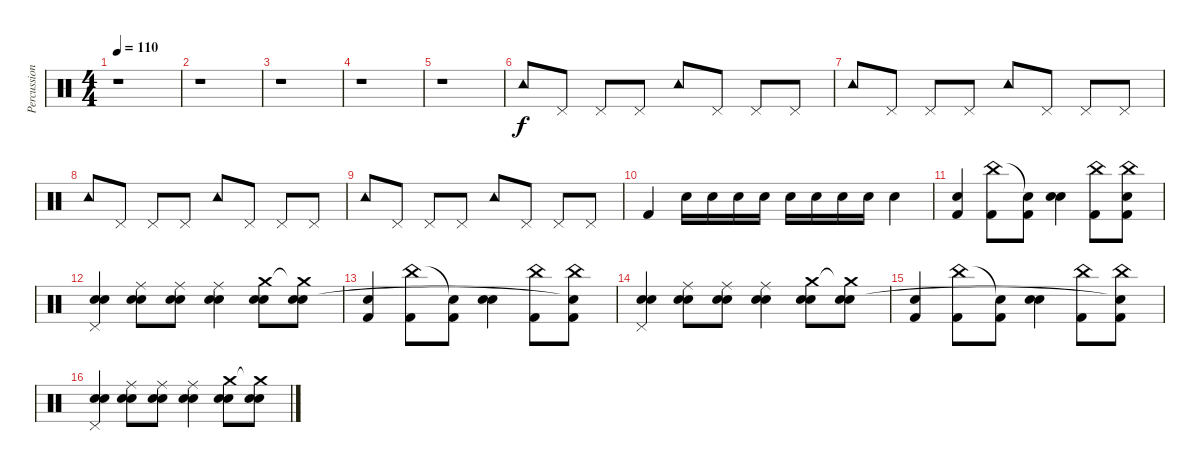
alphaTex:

\track ("Percussion" "Percussion") {instrument percussion}
\staff {score}
\articulation defaults
\ts (4 4)
\tempo 110
\clef neutral
\ks c
r.1{dy f} |
r.1 |
r.1 |
r.1 |
r.1 |
"Tambourine (hit)".8 "Pedal Hi-Hat (hit)".8 "Pedal Hi-Hat (hit)".8 "Pedal Hi-Hat (hit)".8 "Tambourine (hit)".8 "Pedal Hi-Hat (hit)".8 "Pedal Hi-Hat (hit)".8 "Pedal Hi-Hat (hit)".8 |
"Tambourine (hit)".8 "Pedal Hi-Hat (hit)".8 "Pedal Hi-Hat (hit)".8 "Pedal Hi-Hat (hit)".8 "Tambourine (hit)".8 "Pedal Hi-Hat (hit)".8 "Pedal Hi-Hat (hit)".8 "Pedal Hi-Hat (hit)".8 |
"Tambourine (hit)".8 "Pedal Hi-Hat (hit)".8 "Pedal Hi-Hat (hit)".8 "Pedal Hi-Hat (hit)".8 "Tambourine (hit)".8 "Pedal Hi-Hat (hit)".8 "Pedal Hi-Hat (hit)".8 "Pedal Hi-Hat (hit)".8 |
"Tambourine (hit)".8 "Pedal Hi-Hat (hit)".8 "Pedal Hi-Hat (hit)".8 "Pedal Hi-Hat (hit)".8 "Tambourine (hit)".8 "Pedal Hi-Hat (hit)".8 "Pedal Hi-Hat (hit)".8 "Pedal Hi-Hat (hit)".8 |
"Kick (hit) 2".4 "Electric Snare (hit)".16 "Electric Snare (hit)".16 "Electric Snare (hit)".16 "Electric Snare (hit)".16 "Electric Snare (hit)".16 "Electric Snare (hit)".16 "Electric Snare (hit)".16 "Electric Snare (hit)".16 "Electric Snare (hit)".4 |
("Kick (hit) 2" "Electric Snare (hit)").4 ("Kick (hit) 2" "China (hit)").8 ("Kick (hit) 2" "Snare (hit)"{t}).8 ("Hand Clap (hit)" "Electric Snare (hit)").4 ("Kick (hit) 2" "China (hit)").8 ("Kick (hit) 2" "China (hit)" "Snare (hit)").8 |
("Pedal Hi-Hat (hit)" "Electric Snare (hit)" "Snare (hit) 2").4 ("Snare (hit) 2" "Ride (middle)" "Electric Snare (hit)").8 ("Snare (hit) 2" "Ride (middle)" "Electric Snare (hit)").8 ("Snare (hit) 2" "Ride (middle)" "Electric Snare (hit)").4 ("Snare (hit) 2" "Crash medium (hit)" "Electric Snare (hit)").8 ("Snare (hit) 2" "Crash medium (hit)"{t} "Electric Snare (hit)").8 |
("Kick (hit) 2" "Electric Snare (hit)").4 ("Kick (hit) 2" "China (hit)").8 ("Kick (hit) 2" "Snare (hit)"{t}).8 ("Hand Clap (hit)" "Electric Snare (hit)").4 ("Kick (hit) 2" "China (hit)").8 ("Kick (hit) 2" "China (hit)" "Snare (hit)"{t}).8 |
("Pedal Hi-Hat (hit)" "Electric Snare (hit)" "Snare (hit) 2").4 ("Snare (hit) 2" "Ride (middle)" "Electric Snare (hit)").8 ("Snare (hit) 2" "Ride (middle)" "Electric Snare (hit)").8 ("Snare (hit) 2" "Ride (middle)" "Electric Snare (hit)").4 ("Snare (hit) 2" "Crash medium (hit)" "Electric Snare (hit)").8 ("Snare (hit) 2" "Crash medium (hit)"{t} "Electric Snare (hit)").8 |
("Kick (hit) 2" "Electric Snare (hit)").4 ("Kick (hit) 2" "China (hit)").8 ("Kick (hit) 2" "Snare (hit)"{t}).8 ("Hand Clap (hit)" "Electric Snare (hit)").4 ("Kick (hit) 2" "China (hit)").8 ("Kick (hit) 2" "China (hit)" "Snare (hit)"{t}).8 |
("Pedal Hi-Hat (hit)" "Electric Snare (hit)" "Snare (hit) 2").4 ("Snare (hit) 2" "Ride (middle)" "Electric Snare (hit)").8 ("Snare (hit) 2" "Ride (middle)" "Electric Snare (hit)").8 ("Snare (hit) 2" "Ride (middle)" "Electric Snare (hit)").4 ("Snare (hit) 2" "Crash medium (hit)" "Electric Snare (hit)").8 ("Snare (hit) 2" "Crash medium (hit)"{t} "Electric Snare (hit)").8
